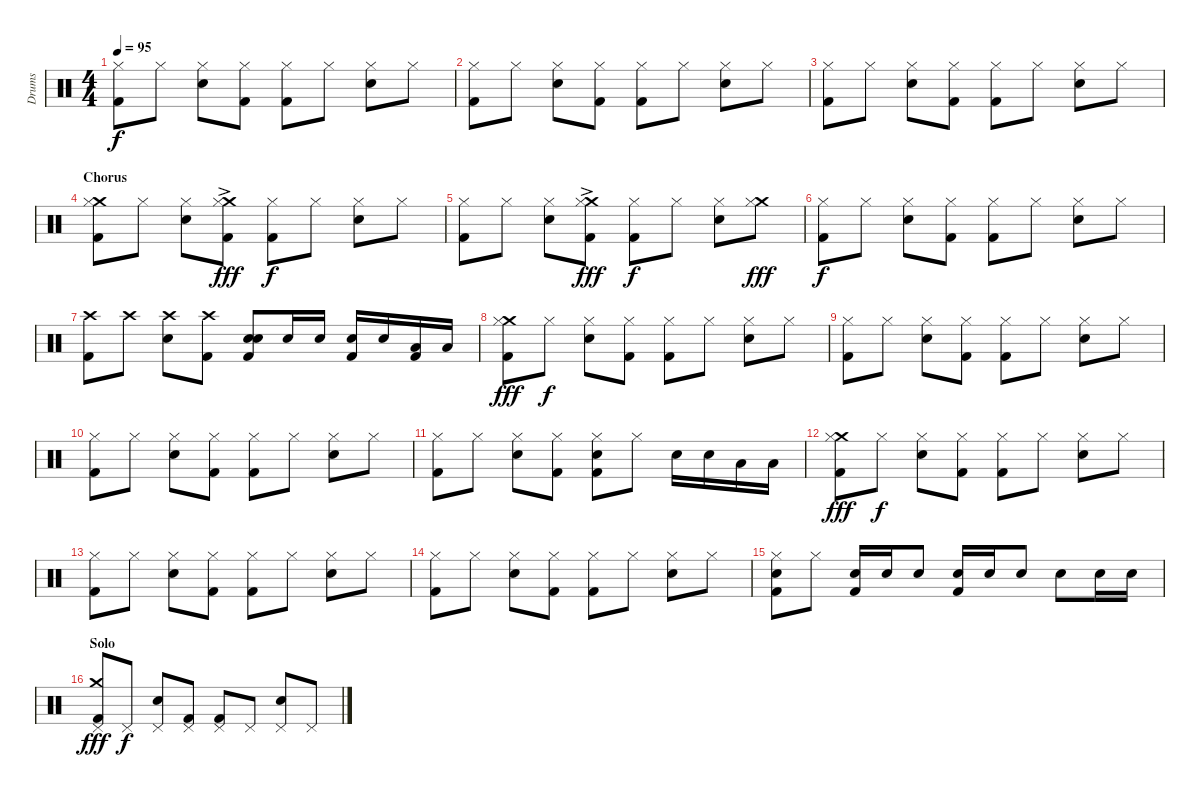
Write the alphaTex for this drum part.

\track ("Drums" "Drums") {instrument percussion}
\staff {score}
\articulation defaults
\ts (4 4)
\tempo 95
\clef neutral
\ks c
("Hi-Hat (closed)" "Kick (hit) 2").8{dy f} "Hi-Hat (closed)".8 ("Hi-Hat (closed)" "Snare (hit) 2").8 ("Hi-Hat (closed)" "Kick (hit) 2").8 ("Hi-Hat (closed)" "Kick (hit) 2").8 "Hi-Hat (closed)".8 ("Hi-Hat (closed)" "Snare (hit) 2").8 "Hi-Hat (closed)".8 |
("Hi-Hat (closed)" "Kick (hit) 2").8 "Hi-Hat (closed)".8 ("Hi-Hat (closed)" "Snare (hit) 2").8 ("Hi-Hat (closed)" "Kick (hit) 2").8 ("Hi-Hat (closed)" "Kick (hit) 2").8 "Hi-Hat (closed)".8 ("Hi-Hat (closed)" "Snare (hit) 2").8 "Hi-Hat (closed)".8 |
("Hi-Hat (closed)" "Kick (hit) 2").8 "Hi-Hat (closed)".8 ("Hi-Hat (closed)" "Snare (hit) 2").8 ("Hi-Hat (closed)" "Kick (hit) 2").8 ("Hi-Hat (closed)" "Kick (hit) 2").8 "Hi-Hat (closed)".8 ("Hi-Hat (closed)" "Snare (hit) 2").8 "Hi-Hat (closed)".8 |
\section ("" "Chorus")
("Crash medium (hit)" "Hi-Hat (closed)" "Kick (hit) 2").8 "Hi-Hat (closed)".8 ("Hi-Hat (closed)" "Snare (hit) 2").8 ("Crash medium (hit)"{ac} "Hi-Hat (closed)" "Kick (hit) 2").8{dy fff} ("Hi-Hat (closed)" "Kick (hit) 2").8{dy f} "Hi-Hat (closed)".8 ("Hi-Hat (closed)" "Snare (hit) 2").8 "Hi-Hat (closed)".8 |
("Hi-Hat (closed)" "Kick (hit) 2").8 "Hi-Hat (closed)".8 ("Hi-Hat (closed)" "Snare (hit) 2").8 ("Crash medium (hit)"{ac} "Hi-Hat (closed)" "Kick (hit) 2").8{dy fff} ("Hi-Hat (closed)" "Kick (hit) 2").8{dy f} "Hi-Hat (closed)".8 ("Hi-Hat (closed)" "Snare (hit) 2").8 ("Crash medium (hit)" "Hi-Hat (closed)").8{dy fff} |
("Hi-Hat (closed)" "Kick (hit) 2").8{dy f} "Hi-Hat (closed)".8 ("Hi-Hat (closed)" "Snare (hit) 2").8 ("Hi-Hat (closed)" "Kick (hit) 2").8 ("Hi-Hat (closed)" "Kick (hit) 2").8 "Hi-Hat (closed)".8 ("Hi-Hat (closed)" "Snare (hit) 2").8 "Hi-Hat (closed)".8 |
("Crash high (hit)" "Kick (hit) 2").8 "Crash high (hit)".8 ("Crash high (hit)" "Snare (hit) 2").8 ("Crash high (hit)" "Kick (hit) 2").8 ("Snare (hit) 2" "Snare (hit) 2" "Kick (hit) 2").8 "Snare (hit) 2".16 "Snare (hit) 2".16 ("Snare (hit) 2" "Kick (hit) 2").16 "Snare (hit) 2".16 ("Low Floor Tom (hit)" "Kick (hit) 2").16 "Low Floor Tom (hit)".16 |
("Crash medium (hit)" "Hi-Hat (closed)" "Kick (hit) 2").8{dy fff} "Hi-Hat (closed)".8{dy f} ("Hi-Hat (closed)" "Snare (hit) 2").8 ("Hi-Hat (closed)" "Kick (hit) 2").8 ("Hi-Hat (closed)" "Kick (hit) 2").8 "Hi-Hat (closed)".8 ("Hi-Hat (closed)" "Snare (hit) 2").8 "Hi-Hat (closed)".8 |
("Hi-Hat (closed)" "Kick (hit) 2").8 "Hi-Hat (closed)".8 ("Hi-Hat (closed)" "Snare (hit) 2").8 ("Hi-Hat (closed)" "Kick (hit) 2").8 ("Hi-Hat (closed)" "Kick (hit) 2").8 "Hi-Hat (closed)".8 ("Hi-Hat (closed)" "Snare (hit) 2").8 "Hi-Hat (closed)".8 |
("Hi-Hat (closed)" "Kick (hit) 2").8 "Hi-Hat (closed)".8 ("Hi-Hat (closed)" "Snare (hit) 2").8 ("Hi-Hat (closed)" "Kick (hit) 2").8 ("Hi-Hat (closed)" "Kick (hit) 2").8 "Hi-Hat (closed)".8 ("Hi-Hat (closed)" "Snare (hit) 2").8 "Hi-Hat (closed)".8 |
("Hi-Hat (closed)" "Kick (hit) 2").8 "Hi-Hat (closed)".8 ("Hi-Hat (closed)" "Snare (hit) 2").8 ("Hi-Hat (closed)" "Kick (hit) 2").8 ("Hi-Hat (closed)" "Snare (hit) 2" "Kick (hit) 2").8 "Hi-Hat (closed)".8 "Snare (hit) 2".16 "Snare (hit) 2".16 "Low Floor Tom (hit)".16 "Low Floor Tom (hit)".16 |
("Crash medium (hit)" "Hi-Hat (closed)" "Kick (hit) 2").8{dy fff} "Hi-Hat (closed)".8{dy f} ("Hi-Hat (closed)" "Snare (hit) 2").8 ("Hi-Hat (closed)" "Kick (hit) 2").8 ("Hi-Hat (closed)" "Kick (hit) 2").8 "Hi-Hat (closed)".8 ("Hi-Hat (closed)" "Snare (hit) 2").8 "Hi-Hat (closed)".8 |
("Hi-Hat (closed)" "Kick (hit) 2").8 "Hi-Hat (closed)".8 ("Hi-Hat (closed)" "Snare (hit) 2").8 ("Hi-Hat (closed)" "Kick (hit) 2").8 ("Hi-Hat (closed)" "Kick (hit) 2").8 "Hi-Hat (closed)".8 ("Hi-Hat (closed)" "Snare (hit) 2").8 "Hi-Hat (closed)".8 |
("Hi-Hat (closed)" "Kick (hit) 2").8 "Hi-Hat (closed)".8 ("Hi-Hat (closed)" "Snare (hit) 2").8 ("Hi-Hat (closed)" "Kick (hit) 2").8 ("Hi-Hat (closed)" "Kick (hit) 2").8 "Hi-Hat (closed)".8 ("Hi-Hat (closed)" "Snare (hit) 2").8 "Hi-Hat (closed)".8 |
("Hi-Hat (closed)" "Snare (hit) 2" "Kick (hit) 2").8 "Hi-Hat (closed)".8 ("Snare (hit) 2" "Kick (hit) 2").16 "Snare (hit) 2".16 "Snare (hit) 2".8 ("Snare (hit) 2" "Kick (hit) 2").16 "Snare (hit) 2".16 "Snare (hit) 2".8 "Snare (hit) 2".8 "Snare (hit) 2".16 "Snare (hit) 2".16 |
\section ("" "Solo")
("Crash medium (hit)" "Pedal Hi-Hat (hit)" "Kick (hit) 2").8{dy fff} "Pedal Hi-Hat (hit)".8{dy f} ("Pedal Hi-Hat (hit)" "Snare (hit) 2").8 ("Pedal Hi-Hat (hit)" "Kick (hit) 2").8 ("Pedal Hi-Hat (hit)" "Kick (hit) 2").8 "Pedal Hi-Hat (hit)".8 ("Pedal Hi-Hat (hit)" "Snare (hit) 2").8 "Pedal Hi-Hat (hit)".8
